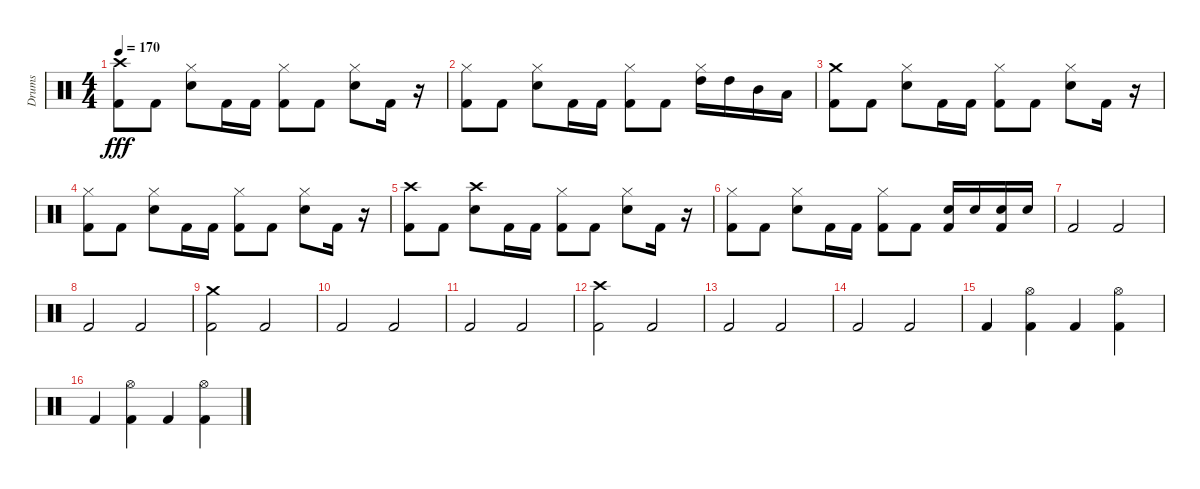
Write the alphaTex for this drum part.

\track ("Drums" "Drums") {instrument percussion}
\staff {score}
\articulation defaults
\ts (4 4)
\tempo 170
\clef neutral
\ks c
("Crash high (hit)" "Kick (hit) 2").8{dy fff} "Kick (hit) 2".8 ("Hi-Hat (closed)" "Snare (hit) 2").8 "Kick (hit) 2".16 "Kick (hit) 2".16 ("Hi-Hat (closed)" "Kick (hit) 2").8 "Kick (hit) 2".8 ("Hi-Hat (closed)" "Snare (hit) 2").8 "Kick (hit) 2".16 r.16 |
("Hi-Hat (closed)" "Kick (hit) 2").8 "Kick (hit) 2".8 ("Hi-Hat (closed)" "Snare (hit) 2").8 "Kick (hit) 2".16 "Kick (hit) 2".16 ("Hi-Hat (closed)" "Kick (hit) 2").8 "Kick (hit) 2".8 ("Hi-Hat (closed)" "High Tom (hit)").16 "High Tom (hit)".16 "Mid Tom (hit)".16 "Low Tom (hit)".16 |
("Crash medium (hit)" "Kick (hit) 2").8 "Kick (hit) 2".8 ("Hi-Hat (closed)" "Snare (hit) 2").8 "Kick (hit) 2".16 "Kick (hit) 2".16 ("Hi-Hat (closed)" "Kick (hit) 2").8 "Kick (hit) 2".8 ("Hi-Hat (closed)" "Snare (hit) 2").8 "Kick (hit) 2".16 r.16 |
("Hi-Hat (closed)" "Kick (hit) 2").8 "Kick (hit) 2".8 ("Hi-Hat (closed)" "Snare (hit) 2").8 "Kick (hit) 2".16 "Kick (hit) 2".16 ("Hi-Hat (closed)" "Kick (hit) 2").8 "Kick (hit) 2".8 ("Hi-Hat (closed)" "Snare (hit) 2").8 "Kick (hit) 2".16 r.16 |
("Crash high (hit)" "Kick (hit) 2").8 "Kick (hit) 2".8 ("Crash high (hit)" "Snare (hit) 2").8 "Kick (hit) 2".16 "Kick (hit) 2".16 ("Hi-Hat (closed)" "Kick (hit) 2").8 "Kick (hit) 2".8 ("Hi-Hat (closed)" "Snare (hit) 2").8 "Kick (hit) 2".16 r.16 |
("Hi-Hat (closed)" "Kick (hit) 2").8 "Kick (hit) 2".8 ("Hi-Hat (closed)" "Snare (hit) 2").8 "Kick (hit) 2".16 "Kick (hit) 2".16 ("Hi-Hat (closed)" "Kick (hit) 2").8 "Kick (hit) 2".8 ("Snare (hit) 2" "Kick (hit) 2").16 "Snare (hit) 2".16 ("Snare (hit) 2" "Kick (hit) 2").16 "Snare (hit) 2".16 |
"Kick (hit) 2".2 "Kick (hit) 2".2 |
"Kick (hit) 2".2 "Kick (hit) 2".2 |
("Crash medium (hit)" "Kick (hit) 2").2 "Kick (hit) 2".2 |
"Kick (hit) 2".2 "Kick (hit) 2".2 |
"Kick (hit) 2".2 "Kick (hit) 2".2 |
("Crash high (hit)" "Kick (hit) 2").2 "Kick (hit) 2".2 |
"Kick (hit) 2".2 "Kick (hit) 2".2 |
"Kick (hit) 2".2 "Kick (hit) 2".2 |
"Kick (hit) 2".4 ("Hi-Hat (open)" "Kick (hit) 2").4 "Kick (hit) 2".4 ("Hi-Hat (open)" "Kick (hit) 2").4 |
"Kick (hit) 2".4 ("Hi-Hat (open)" "Kick (hit) 2").4 "Kick (hit) 2".4 ("Hi-Hat (open)" "Kick (hit) 2").4
